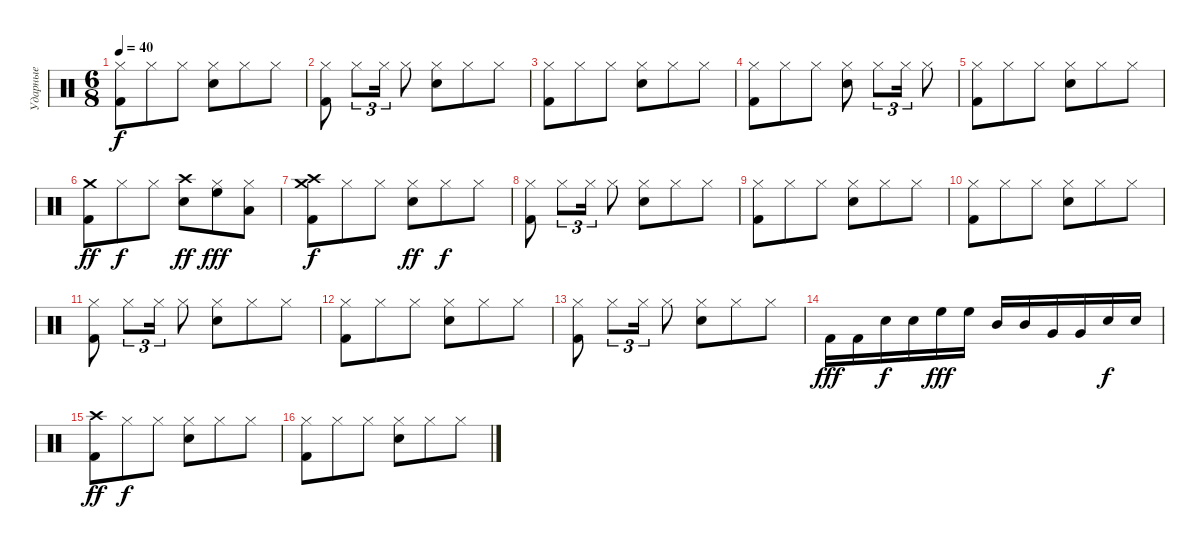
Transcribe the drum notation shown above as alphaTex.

\track ("Ударные" "Ударные") {instrument percussion}
\staff {score}
\articulation defaults
\ts (6 8)
\tempo 40
\clef neutral
\ks c
("Hi-Hat (closed)" "Kick (hit) 2").8{dy f} "Hi-Hat (closed)".8 "Hi-Hat (closed)".8 ("Hi-Hat (closed)" "Snare (hit) 2").8 "Hi-Hat (closed)".8 "Hi-Hat (closed)".8 |
("Hi-Hat (closed)" "Kick (hit) 2").8 "Hi-Hat (closed)".8{tu (3 2)} "Hi-Hat (closed)".16{tu (3 2)} "Hi-Hat (closed)".8 ("Hi-Hat (closed)" "Snare (hit) 2").8 "Hi-Hat (closed)".8 "Hi-Hat (closed)".8 |
("Hi-Hat (closed)" "Kick (hit) 2").8 "Hi-Hat (closed)".8 "Hi-Hat (closed)".8 ("Hi-Hat (closed)" "Snare (hit) 2").8 "Hi-Hat (closed)".8 "Hi-Hat (closed)".8 |
("Hi-Hat (closed)" "Kick (hit) 2").8 "Hi-Hat (closed)".8 "Hi-Hat (closed)".8 ("Hi-Hat (closed)" "Snare (hit) 2").8 "Hi-Hat (closed)".8{tu (3 2)} "Hi-Hat (closed)".16{tu (3 2)} "Hi-Hat (closed)".8 |
("Hi-Hat (closed)" "Kick (hit) 2").8 "Hi-Hat (closed)".8 "Hi-Hat (closed)".8 ("Hi-Hat (closed)" "Snare (hit) 2").8 "Hi-Hat (closed)".8 "Hi-Hat (closed)".8 |
("Crash medium (hit)" "Kick (hit) 2").8{dy ff} "Hi-Hat (closed)".8{dy f} "Hi-Hat (closed)".8 ("Crash high (hit)" "Snare (hit) 2").8{dy ff} ("Hi-Hat (closed)" "High Floor Tom (hit)").8{dy fff} ("Hi-Hat (closed)" "Low Tom (hit)").8 |
("Crash high (hit)" "Kick (hit) 2" "Crash medium (hit)").8{dy f} "Hi-Hat (closed)".8 "Hi-Hat (closed)".8 ("Hi-Hat (closed)" "Snare (hit) 2").8{dy ff} "Hi-Hat (closed)".8{dy f} "Hi-Hat (closed)".8 |
("Hi-Hat (closed)" "Kick (hit) 2").8 "Hi-Hat (closed)".8{tu (3 2)} "Hi-Hat (closed)".16{tu (3 2)} "Hi-Hat (closed)".8 ("Hi-Hat (closed)" "Snare (hit) 2").8 "Hi-Hat (closed)".8 "Hi-Hat (closed)".8 |
("Hi-Hat (closed)" "Kick (hit) 2").8 "Hi-Hat (closed)".8 "Hi-Hat (closed)".8 ("Hi-Hat (closed)" "Snare (hit) 2").8 "Hi-Hat (closed)".8 "Hi-Hat (closed)".8 |
("Hi-Hat (closed)" "Kick (hit) 2").8 "Hi-Hat (closed)".8 "Hi-Hat (closed)".8 ("Hi-Hat (closed)" "Snare (hit) 2").8 "Hi-Hat (closed)".8 "Hi-Hat (closed)".8 |
("Hi-Hat (closed)" "Kick (hit) 2").8 "Hi-Hat (closed)".8{tu (3 2)} "Hi-Hat (closed)".16{tu (3 2)} "Hi-Hat (closed)".8 ("Hi-Hat (closed)" "Snare (hit) 2").8 "Hi-Hat (closed)".8 "Hi-Hat (closed)".8 |
("Hi-Hat (closed)" "Kick (hit) 2").8 "Hi-Hat (closed)".8 "Hi-Hat (closed)".8 ("Hi-Hat (closed)" "Snare (hit) 2").8 "Hi-Hat (closed)".8 "Hi-Hat (closed)".8 |
("Hi-Hat (closed)" "Kick (hit) 2").8 "Hi-Hat (closed)".8{tu (3 2)} "Hi-Hat (closed)".16{tu (3 2)} "Hi-Hat (closed)".8 ("Hi-Hat (closed)" "Snare (hit) 2").8 "Hi-Hat (closed)".8 "Hi-Hat (closed)".8 |
"Kick (hit) 2".16{dy fff} "Kick (hit) 2".16 "Snare (hit) 2".16{dy f} "Snare (hit) 2".16 "High Floor Tom (hit)".16{dy fff} "High Floor Tom (hit)".16 "Mid Tom (hit)".16 "Mid Tom (hit)".16 "Very Low Tom (hit)".16 "Very Low Tom (hit)".16 "Snare (hit) 2".16{dy f} "Snare (hit) 2".16 |
("Crash high (hit)" "Kick (hit) 2").8{dy ff} "Hi-Hat (closed)".8{dy f} "Hi-Hat (closed)".8 ("Hi-Hat (closed)" "Snare (hit) 2").8 "Hi-Hat (closed)".8 "Hi-Hat (closed)".8 |
("Hi-Hat (closed)" "Kick (hit) 2").8 "Hi-Hat (closed)".8 "Hi-Hat (closed)".8 ("Hi-Hat (closed)" "Snare (hit) 2").8 "Hi-Hat (closed)".8 "Hi-Hat (closed)".8
